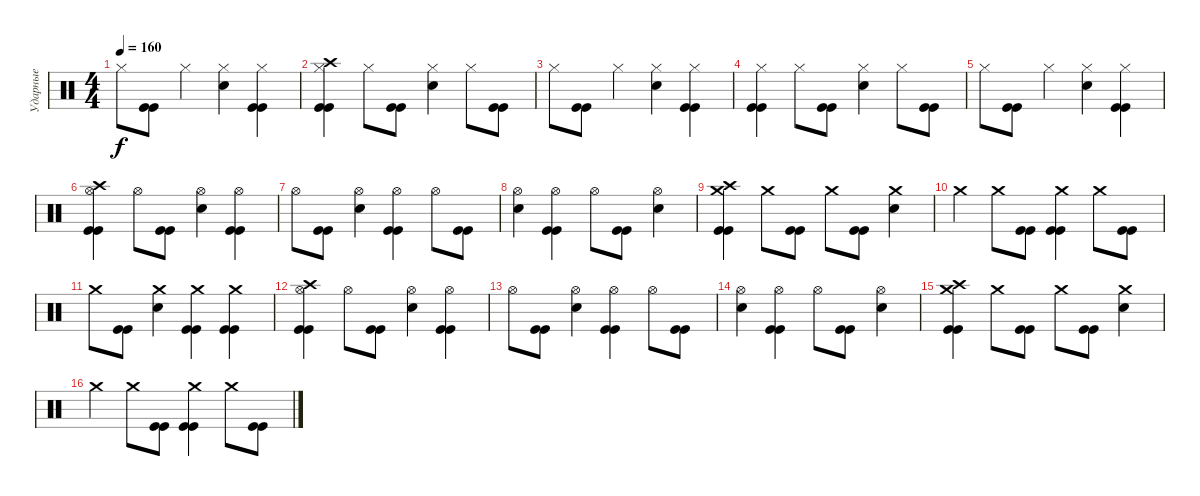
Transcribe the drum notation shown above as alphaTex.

\track ("Ударные" "Ударные") {instrument percussion}
\staff {score}
\articulation defaults
\ts (4 4)
\tempo 160
\clef neutral
\ks c "Hi-Hat (closed)".8{dy f}
("Kick (hit)" "Kick (hit)").8 "Hi-Hat (closed)".4 ("Hi-Hat (closed)" "Snare (hit) 2").4 ("Hi-Hat (closed)" "Kick (hit)" "Kick (hit)").4 |
("Crash high (hit)" "Hi-Hat (closed)" "Kick (hit)" "Kick (hit)").4 "Hi-Hat (closed)".8 ("Kick (hit)" "Kick (hit)").8 ("Hi-Hat (closed)" "Snare (hit) 2").4 "Hi-Hat (closed)".8 ("Kick (hit)" "Kick (hit)").8 |
"Hi-Hat (closed)".8 ("Kick (hit)" "Kick (hit)").8 "Hi-Hat (closed)".4 ("Hi-Hat (closed)" "Snare (hit) 2").4 ("Hi-Hat (closed)" "Kick (hit)" "Kick (hit)").4 |
("Hi-Hat (closed)" "Kick (hit)" "Kick (hit)").4 "Hi-Hat (closed)".8 ("Kick (hit)" "Kick (hit)").8 ("Hi-Hat (closed)" "Snare (hit) 2").4 "Hi-Hat (closed)".8 ("Kick (hit)" "Kick (hit)").8 |
"Hi-Hat (closed)".8 ("Kick (hit)" "Kick (hit)").8 "Hi-Hat (closed)".4 ("Hi-Hat (closed)" "Snare (hit) 2").4 ("Hi-Hat (closed)" "Kick (hit)" "Kick (hit)").4 |
("Crash high (hit)" "Hi-Hat (open)" "Kick (hit)" "Kick (hit)").4 "Hi-Hat (open)".8 ("Kick (hit)" "Kick (hit)").8 ("Hi-Hat (open)" "Snare (hit) 2").4 ("Hi-Hat (open)" "Kick (hit)" "Kick (hit)").4 |
"Hi-Hat (open)".8 ("Kick (hit)" "Kick (hit)").8 ("Hi-Hat (open)" "Snare (hit) 2").4 ("Hi-Hat (open)" "Kick (hit)" "Kick (hit)").4 "Hi-Hat (open)".8 ("Kick (hit)" "Kick (hit)").8 |
("Hi-Hat (open)" "Snare (hit) 2").4 ("Hi-Hat (open)" "Kick (hit)" "Kick (hit)").4 "Hi-Hat (open)".8 ("Kick (hit)" "Kick (hit)").8 ("Hi-Hat (open)" "Snare (hit) 2").4 |
("Crash high (hit)" "Crash medium (hit)" "Kick (hit)" "Kick (hit)").4 "Crash medium (hit)".8 ("Kick (hit)" "Kick (hit)").8 "Crash medium (hit)".8 ("Kick (hit)" "Kick (hit)").8 ("Crash medium (hit)" "Snare (hit) 2").4 |
"Crash medium (hit)".4 "Crash medium (hit)".8 ("Kick (hit)" "Kick (hit)").8 ("Crash medium (hit)" "Kick (hit)" "Kick (hit)").4 "Crash medium (hit)".8 ("Kick (hit)" "Kick (hit)").8 |
"Crash medium (hit)".8 ("Kick (hit)" "Kick (hit)").8 ("Crash medium (hit)" "Snare (hit) 2").4 ("Crash medium (hit)" "Kick (hit)" "Kick (hit)").4 ("Crash medium (hit)" "Kick (hit)" "Kick (hit)").4 |
("Crash high (hit)" "Hi-Hat (open)" "Kick (hit)" "Kick (hit)").4 "Hi-Hat (open)".8 ("Kick (hit)" "Kick (hit)").8 ("Hi-Hat (open)" "Snare (hit) 2").4 ("Hi-Hat (open)" "Kick (hit)" "Kick (hit)").4 |
"Hi-Hat (open)".8 ("Kick (hit)" "Kick (hit)").8 ("Hi-Hat (open)" "Snare (hit) 2").4 ("Hi-Hat (open)" "Kick (hit)" "Kick (hit)").4 "Hi-Hat (open)".8 ("Kick (hit)" "Kick (hit)").8 |
("Hi-Hat (open)" "Snare (hit) 2").4 ("Hi-Hat (open)" "Kick (hit)" "Kick (hit)").4 "Hi-Hat (open)".8 ("Kick (hit)" "Kick (hit)").8 ("Hi-Hat (open)" "Snare (hit) 2").4 |
("Crash high (hit)" "Crash medium (hit)" "Kick (hit)" "Kick (hit)").4 "Crash medium (hit)".8 ("Kick (hit)" "Kick (hit)").8 "Crash medium (hit)".8 ("Kick (hit)" "Kick (hit)").8 ("Crash medium (hit)" "Snare (hit) 2").4 |
"Crash medium (hit)".4 "Crash medium (hit)".8 ("Kick (hit)" "Kick (hit)").8 ("Crash medium (hit)" "Kick (hit)" "Kick (hit)").4 "Crash medium (hit)".8 ("Kick (hit)" "Kick (hit)").8
